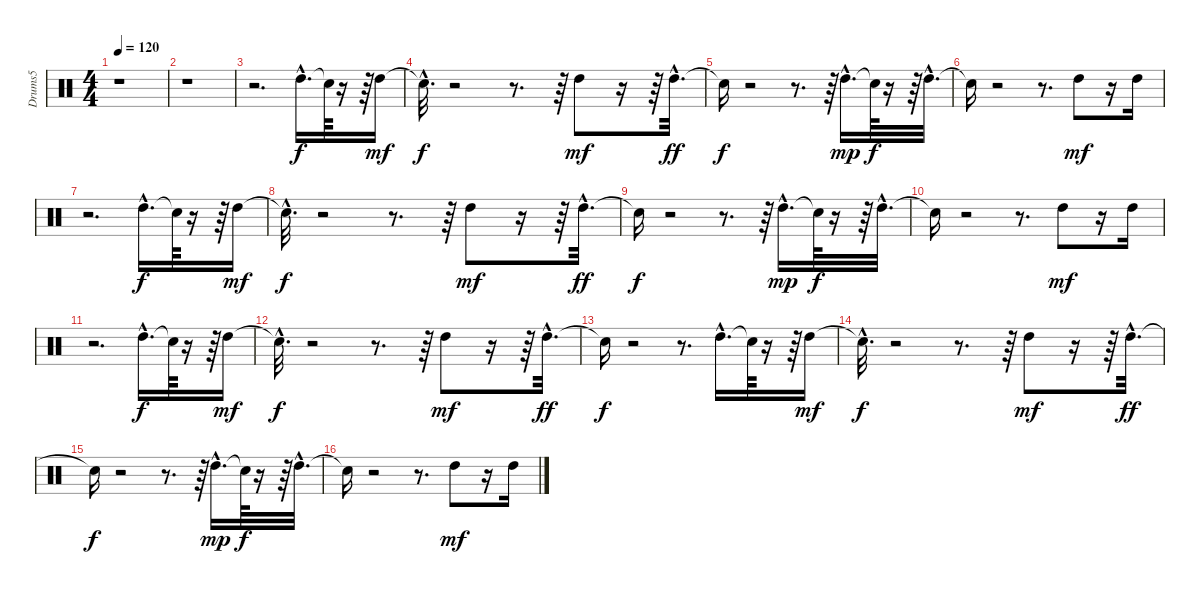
\track ("Drums5" "Drums5") {instrument percussion}
\staff {score}
\articulation defaults
\ts (4 4)
\tempo 120
\clef neutral
\ks c
r.1{dy f} |
r.1 |
r.2{d} "High Tom (hit)"{hac}.16{d} "Snare (hit)"{t}.64 r.16 r.64 "High Tom (hit)".16{dy mf} |
"Snare (hit)"{hac t}.32{d dy f} r.2 r.8{d} r.64 "High Tom (hit)".8{dy mf} r.16 r.64 "High Tom (hit)"{hac}.32{d dy ff} |
"Snare (hit)"{t}.16{dy f} r.2 r.8{d} r.64 "High Tom (hit)"{hac}.16{d dy mp} "Snare (hit)"{t}.64{dy f} r.16 r.64 "High Tom (hit)"{hac}.32{d} |
"Snare (hit)"{t}.16 r.2 r.8{d} "High Tom (hit)".8{dy mf} r.16 "High Tom (hit)".16 |
r.2{d} "High Tom (hit)"{hac}.16{d dy f} "Snare (hit)"{t}.64 r.16 r.64 "High Tom (hit)".16{dy mf} |
"Snare (hit)"{hac t}.32{d dy f} r.2 r.8{d} r.64 "High Tom (hit)".8{dy mf} r.16 r.64 "High Tom (hit)"{hac}.32{d dy ff} |
"Snare (hit)"{t}.16{dy f} r.2 r.8{d} r.64 "High Tom (hit)"{hac}.16{d dy mp} "Snare (hit)"{t}.64{dy f} r.16 r.64 "High Tom (hit)"{hac}.32{d} |
"Snare (hit)"{t}.16 r.2 r.8{d} "High Tom (hit)".8{dy mf} r.16 "High Tom (hit)".16 |
r.2{d} "High Tom (hit)"{hac}.16{d dy f} "Snare (hit)"{t}.64 r.16 r.64 "High Tom (hit)".16{dy mf} |
"Snare (hit)"{hac t}.32{d dy f} r.2 r.8{d} r.64 "High Tom (hit)".8{dy mf} r.16 r.64 "High Tom (hit)"{hac}.32{d dy ff} |
"Snare (hit)"{t}.16{dy f} r.2 r.8{d} "High Tom (hit)"{hac}.16{d} "Snare (hit)"{t}.64 r.16 r.64 "High Tom (hit)".16{dy mf} |
"Snare (hit)"{hac t}.32{d dy f} r.2 r.8{d} r.64 "High Tom (hit)".8{dy mf} r.16 r.64 "High Tom (hit)"{hac}.32{d dy ff} |
"Snare (hit)"{t}.16{dy f} r.2 r.8{d} r.64 "High Tom (hit)"{hac}.16{d dy mp} "Snare (hit)"{t}.64{dy f} r.16 r.64 "High Tom (hit)"{hac}.32{d} |
"Snare (hit)"{t}.16 r.2 r.8{d} "High Tom (hit)".8{dy mf} r.16 "High Tom (hit)".16
